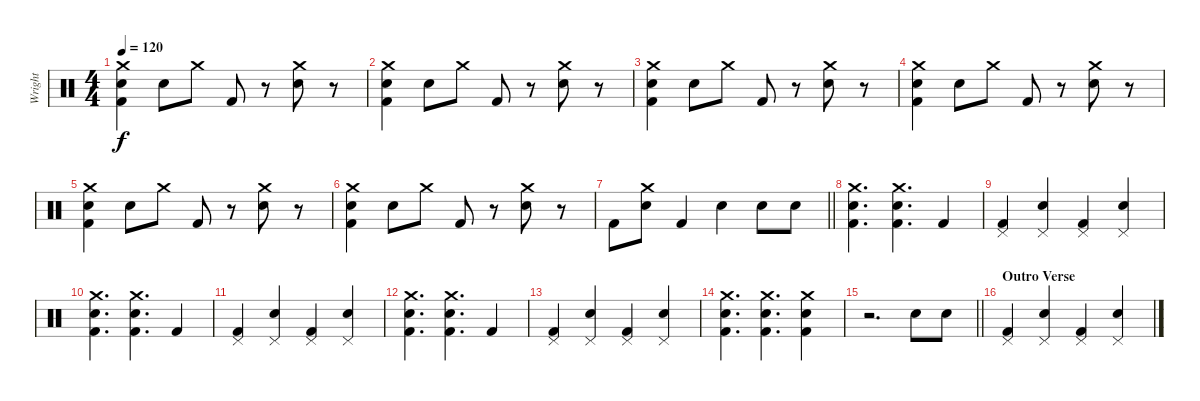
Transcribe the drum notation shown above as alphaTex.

\track ("Wright" "Wright") {instrument percussion}
\staff {score}
\articulation defaults
\ts (4 4)
\tempo 120
\clef neutral
\ks c
("Kick (hit) 2" "Snare (hit) 2" "Crash medium (hit)").4{dy f} "Snare (hit) 2".8 "Crash medium (hit)".8 "Kick (hit) 2".8 r.8 ("Snare (hit) 2" "Crash medium (hit)").8 r.8 |
("Kick (hit) 2" "Snare (hit) 2" "Crash medium (hit)").4 "Snare (hit) 2".8 "Crash medium (hit)".8 "Kick (hit) 2".8 r.8 ("Snare (hit) 2" "Crash medium (hit)").8 r.8 |
("Kick (hit) 2" "Snare (hit) 2" "Crash medium (hit)").4 "Snare (hit) 2".8 "Crash medium (hit)".8 "Kick (hit) 2".8 r.8 ("Snare (hit) 2" "Crash medium (hit)").8 r.8 |
("Kick (hit) 2" "Snare (hit) 2" "Crash medium (hit)").4 "Snare (hit) 2".8 "Crash medium (hit)".8 "Kick (hit) 2".8 r.8 ("Snare (hit) 2" "Crash medium (hit)").8 r.8 |
("Kick (hit) 2" "Snare (hit) 2" "Crash medium (hit)").4 "Snare (hit) 2".8 "Crash medium (hit)".8 "Kick (hit) 2".8 r.8 ("Snare (hit) 2" "Crash medium (hit)").8 r.8 |
("Kick (hit) 2" "Snare (hit) 2" "Crash medium (hit)").4 "Snare (hit) 2".8 "Crash medium (hit)".8 "Kick (hit) 2".8 r.8 ("Snare (hit) 2" "Crash medium (hit)").8 r.8 |
\barLineRight lightlight "Kick (hit) 2".8
("Snare (hit) 2" "Crash medium (hit)").8 "Kick (hit) 2".4 "Snare (hit) 2".4 "Snare (hit) 2".8 "Snare (hit) 2".8 |
\section ("" "")
("Crash medium (hit)" "Snare (hit) 2" "Kick (hit) 2").4{d} ("Crash medium (hit)" "Snare (hit) 2" "Kick (hit) 2").4{d} "Kick (hit) 2".4 |
("Kick (hit) 2" "Pedal Hi-Hat (hit)").4 ("Snare (hit) 2" "Pedal Hi-Hat (hit)").4 ("Kick (hit) 2" "Pedal Hi-Hat (hit)").4 ("Snare (hit) 2" "Pedal Hi-Hat (hit)").4 |
("Crash medium (hit)" "Snare (hit) 2" "Kick (hit) 2").4{d} ("Crash medium (hit)" "Snare (hit) 2" "Kick (hit) 2").4{d} "Kick (hit) 2".4 |
("Kick (hit) 2" "Pedal Hi-Hat (hit)").4 ("Snare (hit) 2" "Pedal Hi-Hat (hit)").4 ("Kick (hit) 2" "Pedal Hi-Hat (hit)").4 ("Snare (hit) 2" "Pedal Hi-Hat (hit)").4 |
("Crash medium (hit)" "Snare (hit) 2" "Kick (hit) 2").4{d} ("Crash medium (hit)" "Snare (hit) 2" "Kick (hit) 2").4{d} "Kick (hit) 2".4 |
("Kick (hit) 2" "Pedal Hi-Hat (hit)").4 ("Snare (hit) 2" "Pedal Hi-Hat (hit)").4 ("Kick (hit) 2" "Pedal Hi-Hat (hit)").4 ("Snare (hit) 2" "Pedal Hi-Hat (hit)").4 |
("Crash medium (hit)" "Snare (hit) 2" "Kick (hit) 2").4{d} ("Crash medium (hit)" "Snare (hit) 2" "Kick (hit) 2").4{d} ("Crash medium (hit)" "Snare (hit) 2" "Kick (hit) 2").4 |
\barLineRight lightlight
r.2{d} "Snare (hit) 2".8 "Snare (hit) 2".8 |
\section ("" "Outro Verse")
("Kick (hit) 2" "Pedal Hi-Hat (hit)").4 ("Snare (hit) 2" "Pedal Hi-Hat (hit)").4 ("Kick (hit) 2" "Pedal Hi-Hat (hit)").4 ("Snare (hit) 2" "Pedal Hi-Hat (hit)").4
